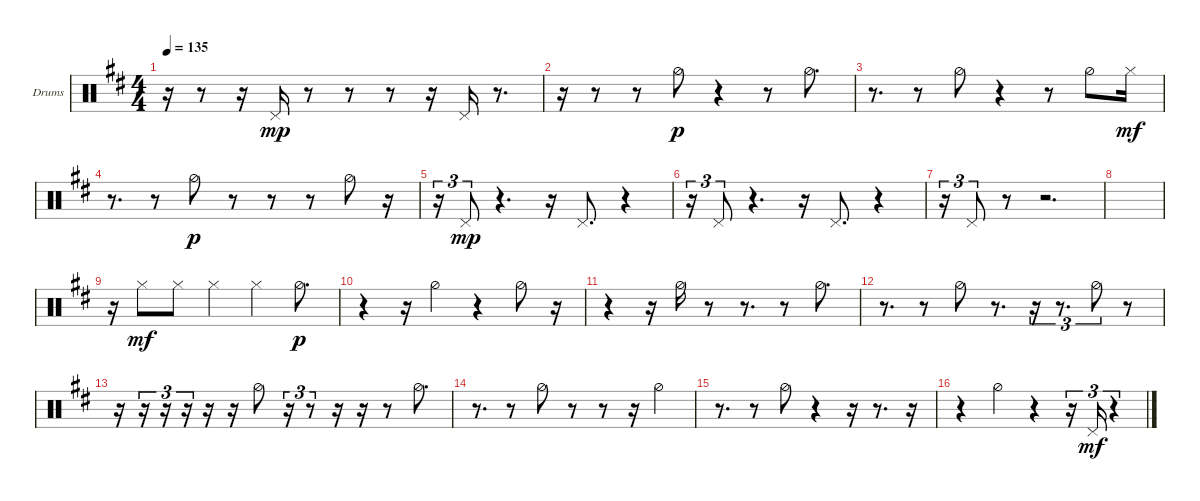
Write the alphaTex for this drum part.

\bracketExtendMode groupsimilarinstruments
\firstSystemTrackNameOrientation horizontal
\otherSystemsTrackNameOrientation horizontal
\track ("HH" "Drums") {instrument percussion}
\staff {score}
\articulation defaults
\ts (4 4)
\tempo 135
\clef neutral
\ks d
r.16{dy p} r.8 r.16 "Pedal Hi-Hat (hit)".16{dy mp} r.8 r.8 r.8 r.16 "Pedal Hi-Hat (hit)".16 r.8{d} |
r.16 r.8 r.8 "Hi-Hat (half)".8{dy p} r.4 r.8 "Hi-Hat (half)".8{d} |
r.8{d} r.8 "Hi-Hat (half)".8 r.4 r.8 "Hi-Hat (half)".8 "Hi-Hat (closed)".16{dy mf} |
r.8{d} r.8 "Hi-Hat (half)".8{dy p} r.8 r.8 r.8 "Hi-Hat (half)".8 r.16 |
r.16{tu (3 2)} "Pedal Hi-Hat (hit)".8{tu (3 2) dy mp} r.4{d} r.16 "Pedal Hi-Hat (hit)".8{d} r.4 |
r.16{tu (3 2)} "Pedal Hi-Hat (hit)".8{tu (3 2)} r.4{d} r.16 "Pedal Hi-Hat (hit)".8{d} r.4 |
r.16{tu (3 2)} "Pedal Hi-Hat (hit)".8{tu (3 2)} r.8 r.2{d} |
|
r.16 "Hi-Hat (closed)".8{dy mf} "Hi-Hat (closed)".8 "Hi-Hat (closed)".4 "Hi-Hat (closed)".4 "Hi-Hat (half)".8{d dy p} |
r.4 r.16 "Hi-Hat (half)".4 r.4 "Hi-Hat (half)".8 r.16 |
r.4 r.16 "Hi-Hat (half)".16 r.8 r.8{d} r.8 "Hi-Hat (half)".8{d} |
r.8{d} r.8 "Hi-Hat (half)".8 r.8{d} r.16{tu (3 2)} r.8{d tu (3 2)} "Hi-Hat (half)".8{tu (3 2)} r.8 |
r.16 r.16{tu (3 2)} r.16{tu (3 2)} r.16{tu (3 2)} r.16 r.16 "Hi-Hat (half)".8 r.16{tu (3 2)} r.8{tu (3 2)} r.16 r.16 r.8 "Hi-Hat (half)".8{d} |
r.8{d} r.8 "Hi-Hat (half)".8 r.8 r.8 r.16 "Hi-Hat (half)".4 |
r.8{d} r.8 "Hi-Hat (half)".8 r.4 r.16 r.8{d} r.16 |
r.4 "Hi-Hat (half)".4 r.4 r.16{tu (3 2)} "Pedal Hi-Hat (hit)".16{tu (3 2) dy mf} r.4{tu (3 2)}
